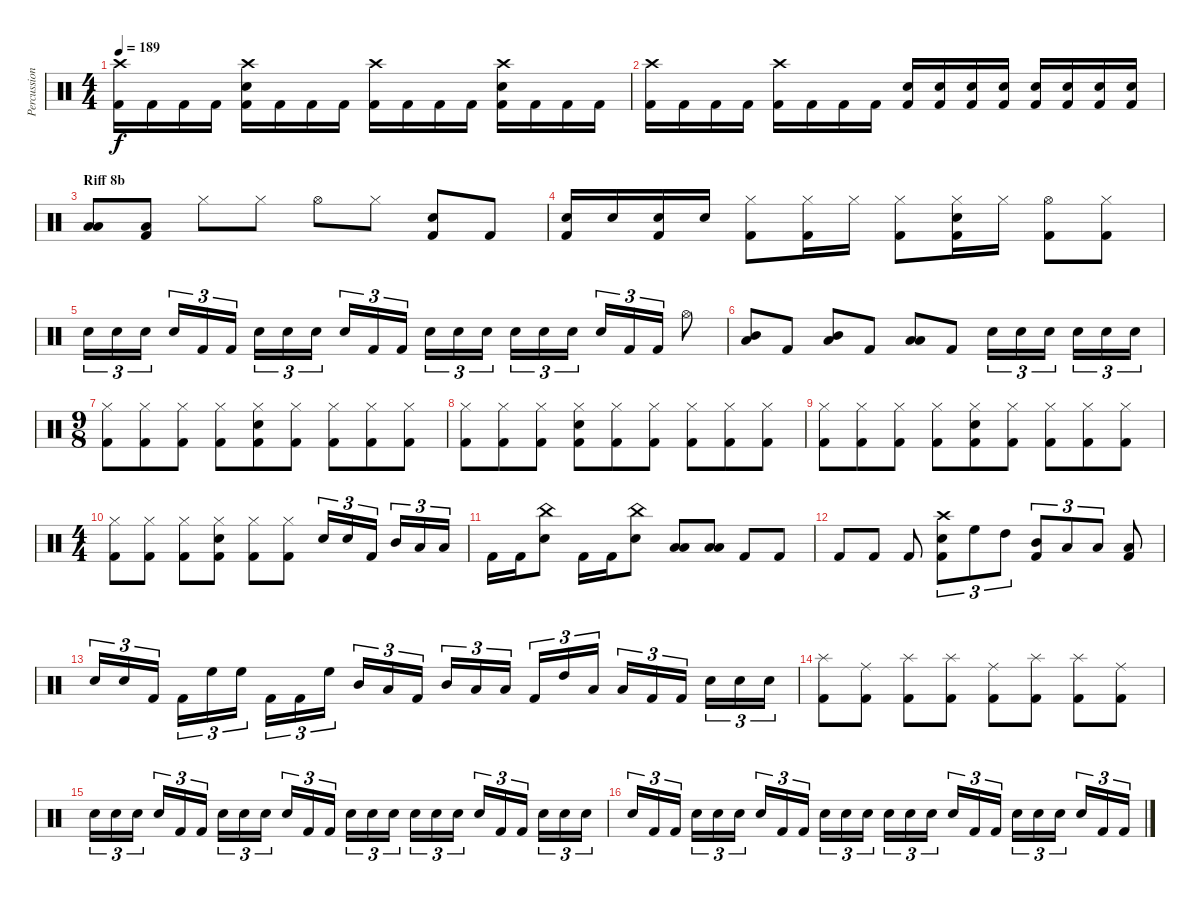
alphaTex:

\track ("Percussion" "Percussion") {instrument percussion}
\staff {score}
\articulation defaults
\ts (4 4)
\tempo 189
\clef neutral
\ks c
("Crash high (hit)" "Kick (hit) 2").16{dy f} "Kick (hit) 2".16 "Kick (hit) 2".16 "Kick (hit) 2".16 ("Crash high (hit)" "Electric Snare (hit)" "Kick (hit) 2").16 "Kick (hit) 2".16 "Kick (hit) 2".16 "Kick (hit) 2".16 ("Crash high (hit)" "Kick (hit) 2").16 "Kick (hit) 2".16 "Kick (hit) 2".16 "Kick (hit) 2".16 ("Crash high (hit)" "Electric Snare (hit)" "Kick (hit) 2").16 "Kick (hit) 2".16 "Kick (hit) 2".16 "Kick (hit) 2".16 |
("Crash high (hit)" "Kick (hit) 2").16 "Kick (hit) 2".16 "Kick (hit) 2".16 "Kick (hit) 2".16 ("Crash high (hit)" "Kick (hit) 2").16 "Kick (hit) 2".16 "Kick (hit) 2".16 "Kick (hit) 2".16 ("Electric Snare (hit)" "Kick (hit) 2").16 ("Electric Snare (hit)" "Kick (hit) 2").16 ("Electric Snare (hit)" "Kick (hit) 2").16 ("Electric Snare (hit)" "Kick (hit) 2").16 ("Electric Snare (hit)" "Kick (hit) 2").16 ("Electric Snare (hit)" "Kick (hit) 2").16 ("Electric Snare (hit)" "Kick (hit) 2").16 ("Electric Snare (hit)" "Kick (hit) 2").16 |
\section ("" "Riff 8b")
("Low Tom (hit)" "Low Floor Tom (hit)").8 ("Low Floor Tom (hit)" "Kick (hit) 2").8 "Hi-Hat (closed)".8 "Hi-Hat (closed)".8 "Hi-Hat (open)".8 "Hi-Hat (closed)".8 ("Electric Snare (hit)" "Kick (hit) 2").8 "Kick (hit) 2".8 |
("Electric Snare (hit)" "Kick (hit) 2").16 "Electric Snare (hit)".16 ("Electric Snare (hit)" "Kick (hit) 2").16 "Electric Snare (hit)".16 ("Hi-Hat (closed)" "Kick (hit) 2").8 ("Hi-Hat (closed)" "Kick (hit) 2").16 "Hi-Hat (closed)".16 ("Hi-Hat (closed)" "Kick (hit) 2").8 ("Hi-Hat (closed)" "Electric Snare (hit)" "Kick (hit) 2").16 "Hi-Hat (closed)".16 ("Hi-Hat (open)" "Kick (hit) 2").8 ("Hi-Hat (closed)" "Kick (hit) 2").8 |
"Electric Snare (hit)".16{tu (3 2)} "Electric Snare (hit)".16{tu (3 2)} "Electric Snare (hit)".16{tu (3 2)} "Electric Snare (hit)".16{tu (3 2)} "Kick (hit) 2".16{tu (3 2)} "Kick (hit) 2".16{tu (3 2)} "Electric Snare (hit)".16{tu (3 2)} "Electric Snare (hit)".16{tu (3 2)} "Electric Snare (hit)".16{tu (3 2)} "Electric Snare (hit)".16{tu (3 2)} "Kick (hit) 2".16{tu (3 2)} "Kick (hit) 2".16{tu (3 2)} "Electric Snare (hit)".16{tu (3 2)} "Electric Snare (hit)".16{tu (3 2)} "Electric Snare (hit)".16{tu (3 2)} "Electric Snare (hit)".16{tu (3 2)} "Electric Snare (hit)".16{tu (3 2)} "Electric Snare (hit)".16{tu (3 2)} "Electric Snare (hit)".16{tu (3 2)} "Kick (hit) 2".16{tu (3 2)} "Kick (hit) 2".16{tu (3 2)} "Hi-Hat (open)".8 |
("Mid Tom (hit)" "Low Tom (hit)").8 "Kick (hit) 2".8 ("Mid Tom (hit)" "Low Tom (hit)").8 "Kick (hit) 2".8 ("Low Tom (hit)" "Low Floor Tom (hit)").8 "Kick (hit) 2".8 "Electric Snare (hit)".16{tu (3 2)} "Electric Snare (hit)".16{tu (3 2)} "Electric Snare (hit)".16{tu (3 2)} "Electric Snare (hit)".16{tu (3 2)} "Electric Snare (hit)".16{tu (3 2)} "Electric Snare (hit)".16{tu (3 2)} |
\ts (9 8)
("Hi-Hat (closed)" "Kick (hit) 2").8 ("Hi-Hat (closed)" "Kick (hit) 2").8 ("Hi-Hat (closed)" "Kick (hit) 2").8 ("Hi-Hat (closed)" "Kick (hit) 2").8 ("Hi-Hat (closed)" "Electric Snare (hit)" "Kick (hit) 2").8 ("Hi-Hat (closed)" "Kick (hit) 2").8 ("Hi-Hat (closed)" "Kick (hit) 2").8 ("Hi-Hat (closed)" "Kick (hit) 2").8 ("Hi-Hat (closed)" "Kick (hit) 2").8 |
("Hi-Hat (closed)" "Kick (hit) 2").8 ("Hi-Hat (closed)" "Kick (hit) 2").8 ("Hi-Hat (closed)" "Kick (hit) 2").8 ("Hi-Hat (closed)" "Electric Snare (hit)" "Kick (hit) 2").8 ("Hi-Hat (closed)" "Kick (hit) 2").8 ("Hi-Hat (closed)" "Kick (hit) 2").8 ("Hi-Hat (closed)" "Kick (hit) 2").8 ("Hi-Hat (closed)" "Kick (hit) 2").8 ("Hi-Hat (closed)" "Kick (hit) 2").8 |
("Hi-Hat (closed)" "Kick (hit) 2").8 ("Hi-Hat (closed)" "Kick (hit) 2").8 ("Hi-Hat (closed)" "Kick (hit) 2").8 ("Hi-Hat (closed)" "Kick (hit) 2").8 ("Hi-Hat (closed)" "Electric Snare (hit)" "Kick (hit) 2").8 ("Hi-Hat (closed)" "Kick (hit) 2").8 ("Hi-Hat (closed)" "Kick (hit) 2").8 ("Hi-Hat (closed)" "Kick (hit) 2").8 ("Hi-Hat (closed)" "Kick (hit) 2").8 |
\ts (4 4)
("Hi-Hat (closed)" "Kick (hit) 2").8 ("Hi-Hat (closed)" "Kick (hit) 2").8 ("Hi-Hat (closed)" "Kick (hit) 2").8 ("Hi-Hat (closed)" "Electric Snare (hit)" "Kick (hit) 2").8 ("Hi-Hat (closed)" "Kick (hit) 2").8 ("Hi-Hat (closed)" "Kick (hit) 2").8 "Electric Snare (hit)".16{tu (3 2)} "Electric Snare (hit)".16{tu (3 2)} "Kick (hit) 2".16{tu (3 2)} "Mid Tom (hit)".16{tu (3 2)} "Low Tom (hit)".16{tu (3 2)} "Low Floor Tom (hit)".16{tu (3 2)} |
"Kick (hit) 2".16 "Kick (hit) 2".16 ("China (hit)" "Electric Snare (hit)").8 "Kick (hit) 2".16 "Kick (hit) 2".16 ("China (hit)" "Electric Snare (hit)").8 ("Low Tom (hit)" "Low Floor Tom (hit)").8 ("Low Tom (hit)" "Low Floor Tom (hit)").8 "Kick (hit) 2".8 "Kick (hit) 2".8 |
"Kick (hit) 2".8 "Kick (hit) 2".8 "Kick (hit) 2".8 ("Crash high (hit)" "Electric Snare (hit)" "Kick (hit) 2").8{tu (3 2)} "High Floor Tom (hit)".8{tu (3 2)} "High Tom (hit)".8{tu (3 2)} ("Mid Tom (hit)" "Kick (hit) 2").8{tu (3 2)} "Low Tom (hit)".8{tu (3 2)} "Low Tom (hit)".8{tu (3 2)} ("Low Floor Tom (hit)" "Kick (hit) 2").8 |
"Electric Snare (hit)".16{tu (3 2)} "Electric Snare (hit)".16{tu (3 2)} "Kick (hit) 2".16{tu (3 2)} "Kick (hit) 2".16{tu (3 2)} "High Floor Tom (hit)".16{tu (3 2)} "High Floor Tom (hit)".16{tu (3 2)} "Kick (hit) 2".16{tu (3 2)} "Kick (hit) 2".16{tu (3 2)} "High Floor Tom (hit)".16{tu (3 2)} "Mid Tom (hit)".16{tu (3 2)} "Low Tom (hit)".16{tu (3 2)} "Kick (hit) 2".16{tu (3 2)} "Mid Tom (hit)".16{tu (3 2)} "Low Tom (hit)".16{tu (3 2)} "Low Floor Tom (hit)".16{tu (3 2)} "Kick (hit) 2".16{tu (3 2)} "High Tom (hit)".16{tu (3 2)} "Low Tom (hit)".16{tu (3 2)} "Low Floor Tom (hit)".16{tu (3 2)} "Kick (hit) 2".16{tu (3 2)} "Kick (hit) 2".16{tu (3 2)} "Electric Snare (hit)".16{tu (3 2)} "Electric Snare (hit)".16{tu (3 2)} "Electric Snare (hit)".16{tu (3 2)} |
("Splash (hit)" "Kick (hit) 2").8 ("Ride (middle)" "Kick (hit) 2").8 ("Splash (hit)" "Kick (hit) 2").8 ("Splash (hit)" "Kick (hit) 2").8 ("Ride (middle)" "Kick (hit) 2").8 ("Splash (hit)" "Kick (hit) 2").8 ("Splash (hit)" "Kick (hit) 2").8 ("Ride (middle)" "Kick (hit) 2").8 |
"Electric Snare (hit)".16{tu (3 2)} "Electric Snare (hit)".16{tu (3 2)} "Electric Snare (hit)".16{tu (3 2)} "Electric Snare (hit)".16{tu (3 2)} "Kick (hit) 2".16{tu (3 2)} "Kick (hit) 2".16{tu (3 2)} "Electric Snare (hit)".16{tu (3 2)} "Electric Snare (hit)".16{tu (3 2)} "Electric Snare (hit)".16{tu (3 2)} "Electric Snare (hit)".16{tu (3 2)} "Kick (hit) 2".16{tu (3 2)} "Kick (hit) 2".16{tu (3 2)} "Electric Snare (hit)".16{tu (3 2)} "Electric Snare (hit)".16{tu (3 2)} "Electric Snare (hit)".16{tu (3 2)} "Electric Snare (hit)".16{tu (3 2)} "Electric Snare (hit)".16{tu (3 2)} "Electric Snare (hit)".16{tu (3 2)} "Electric Snare (hit)".16{tu (3 2)} "Kick (hit) 2".16{tu (3 2)} "Kick (hit) 2".16{tu (3 2)} "Electric Snare (hit)".16{tu (3 2)} "Electric Snare (hit)".16{tu (3 2)} "Electric Snare (hit)".16{tu (3 2)} |
"Electric Snare (hit)".16{tu (3 2)} "Kick (hit) 2".16{tu (3 2)} "Kick (hit) 2".16{tu (3 2)} "Electric Snare (hit)".16{tu (3 2)} "Electric Snare (hit)".16{tu (3 2)} "Electric Snare (hit)".16{tu (3 2)} "Electric Snare (hit)".16{tu (3 2)} "Kick (hit) 2".16{tu (3 2)} "Kick (hit) 2".16{tu (3 2)} "Electric Snare (hit)".16{tu (3 2)} "Electric Snare (hit)".16{tu (3 2)} "Electric Snare (hit)".16{tu (3 2)} "Electric Snare (hit)".16{tu (3 2)} "Electric Snare (hit)".16{tu (3 2)} "Electric Snare (hit)".16{tu (3 2)} "Electric Snare (hit)".16{tu (3 2)} "Kick (hit) 2".16{tu (3 2)} "Kick (hit) 2".16{tu (3 2)} "Electric Snare (hit)".16{tu (3 2)} "Electric Snare (hit)".16{tu (3 2)} "Electric Snare (hit)".16{tu (3 2)} "Electric Snare (hit)".16{tu (3 2)} "Kick (hit) 2".16{tu (3 2)} "Kick (hit) 2".16{tu (3 2)}
